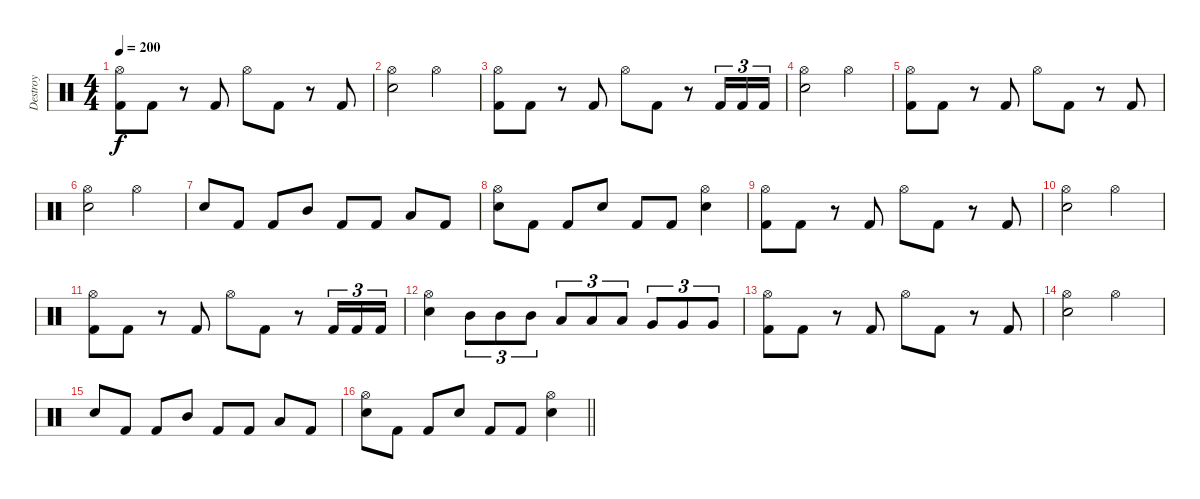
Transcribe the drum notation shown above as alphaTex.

\track ("Destroy" "Destroy") {instrument percussion}
\staff {score}
\articulation defaults
\ts (4 4)
\tempo 200
\clef neutral
\ks c
("Hi-Hat (open)" "Kick (hit) 2").8{dy f} "Kick (hit) 2".8 r.8 "Kick (hit) 2".8 "Hi-Hat (open)".8 "Kick (hit) 2".8 r.8 "Kick (hit) 2".8 |
("Hi-Hat (open)" "Snare (hit) 2").2 "Hi-Hat (open)".2 |
("Hi-Hat (open)" "Kick (hit) 2").8 "Kick (hit) 2".8 r.8 "Kick (hit) 2".8 "Hi-Hat (open)".8 "Kick (hit) 2".8 r.8 "Kick (hit) 2".16{tu (3 2)} "Kick (hit) 2".16{tu (3 2)} "Kick (hit) 2".16{tu (3 2)} |
("Hi-Hat (open)" "Snare (hit) 2").2 "Hi-Hat (open)".2 |
("Hi-Hat (open)" "Kick (hit) 2").8 "Kick (hit) 2".8 r.8 "Kick (hit) 2".8 "Hi-Hat (open)".8 "Kick (hit) 2".8 r.8 "Kick (hit) 2".8 |
("Hi-Hat (open)" "Snare (hit) 2").2 "Hi-Hat (open)".2 |
"Snare (hit) 2".8 "Kick (hit) 2".8 "Kick (hit) 2".8 "Mid Tom (hit)".8 "Kick (hit) 2".8 "Kick (hit) 2".8 "Low Tom (hit)".8 "Kick (hit) 2".8 |
("Hi-Hat (open)" "Snare (hit) 2").8 "Kick (hit) 2".8 "Kick (hit) 2".8 "Snare (hit) 2".8 "Kick (hit) 2".8 "Kick (hit) 2".8 ("Hi-Hat (open)" "Snare (hit) 2").4 |
("Hi-Hat (open)" "Kick (hit) 2").8 "Kick (hit) 2".8 r.8 "Kick (hit) 2".8 "Hi-Hat (open)".8 "Kick (hit) 2".8 r.8 "Kick (hit) 2".8 |
("Hi-Hat (open)" "Snare (hit) 2").2 "Hi-Hat (open)".2 |
("Hi-Hat (open)" "Kick (hit) 2").8 "Kick (hit) 2".8 r.8 "Kick (hit) 2".8 "Hi-Hat (open)".8 "Kick (hit) 2".8 r.8 "Kick (hit) 2".16{tu (3 2)} "Kick (hit) 2".16{tu (3 2)} "Kick (hit) 2".16{tu (3 2)} |
("Hi-Hat (open)" "Snare (hit) 2").4 "Mid Tom (hit)".8{tu (3 2)} "Mid Tom (hit)".8{tu (3 2)} "Mid Tom (hit)".8{tu (3 2)} "Low Tom (hit)".8{tu (3 2)} "Low Tom (hit)".8{tu (3 2)} "Low Tom (hit)".8{tu (3 2)} "Very Low Tom (hit)".8{tu (3 2)} "Very Low Tom (hit)".8{tu (3 2)} "Very Low Tom (hit)".8{tu (3 2)} |
("Hi-Hat (open)" "Kick (hit) 2").8 "Kick (hit) 2".8 r.8 "Kick (hit) 2".8 "Hi-Hat (open)".8 "Kick (hit) 2".8 r.8 "Kick (hit) 2".8 |
("Hi-Hat (open)" "Snare (hit) 2").2 "Hi-Hat (open)".2 |
"Snare (hit) 2".8 "Kick (hit) 2".8 "Kick (hit) 2".8 "Mid Tom (hit)".8 "Kick (hit) 2".8 "Kick (hit) 2".8 "Low Tom (hit)".8 "Kick (hit) 2".8 |
\barLineRight lightlight
("Hi-Hat (open)" "Snare (hit) 2").8 "Kick (hit) 2".8 "Kick (hit) 2".8 "Snare (hit) 2".8 "Kick (hit) 2".8 "Kick (hit) 2".8 ("Hi-Hat (open)" "Snare (hit) 2").4
